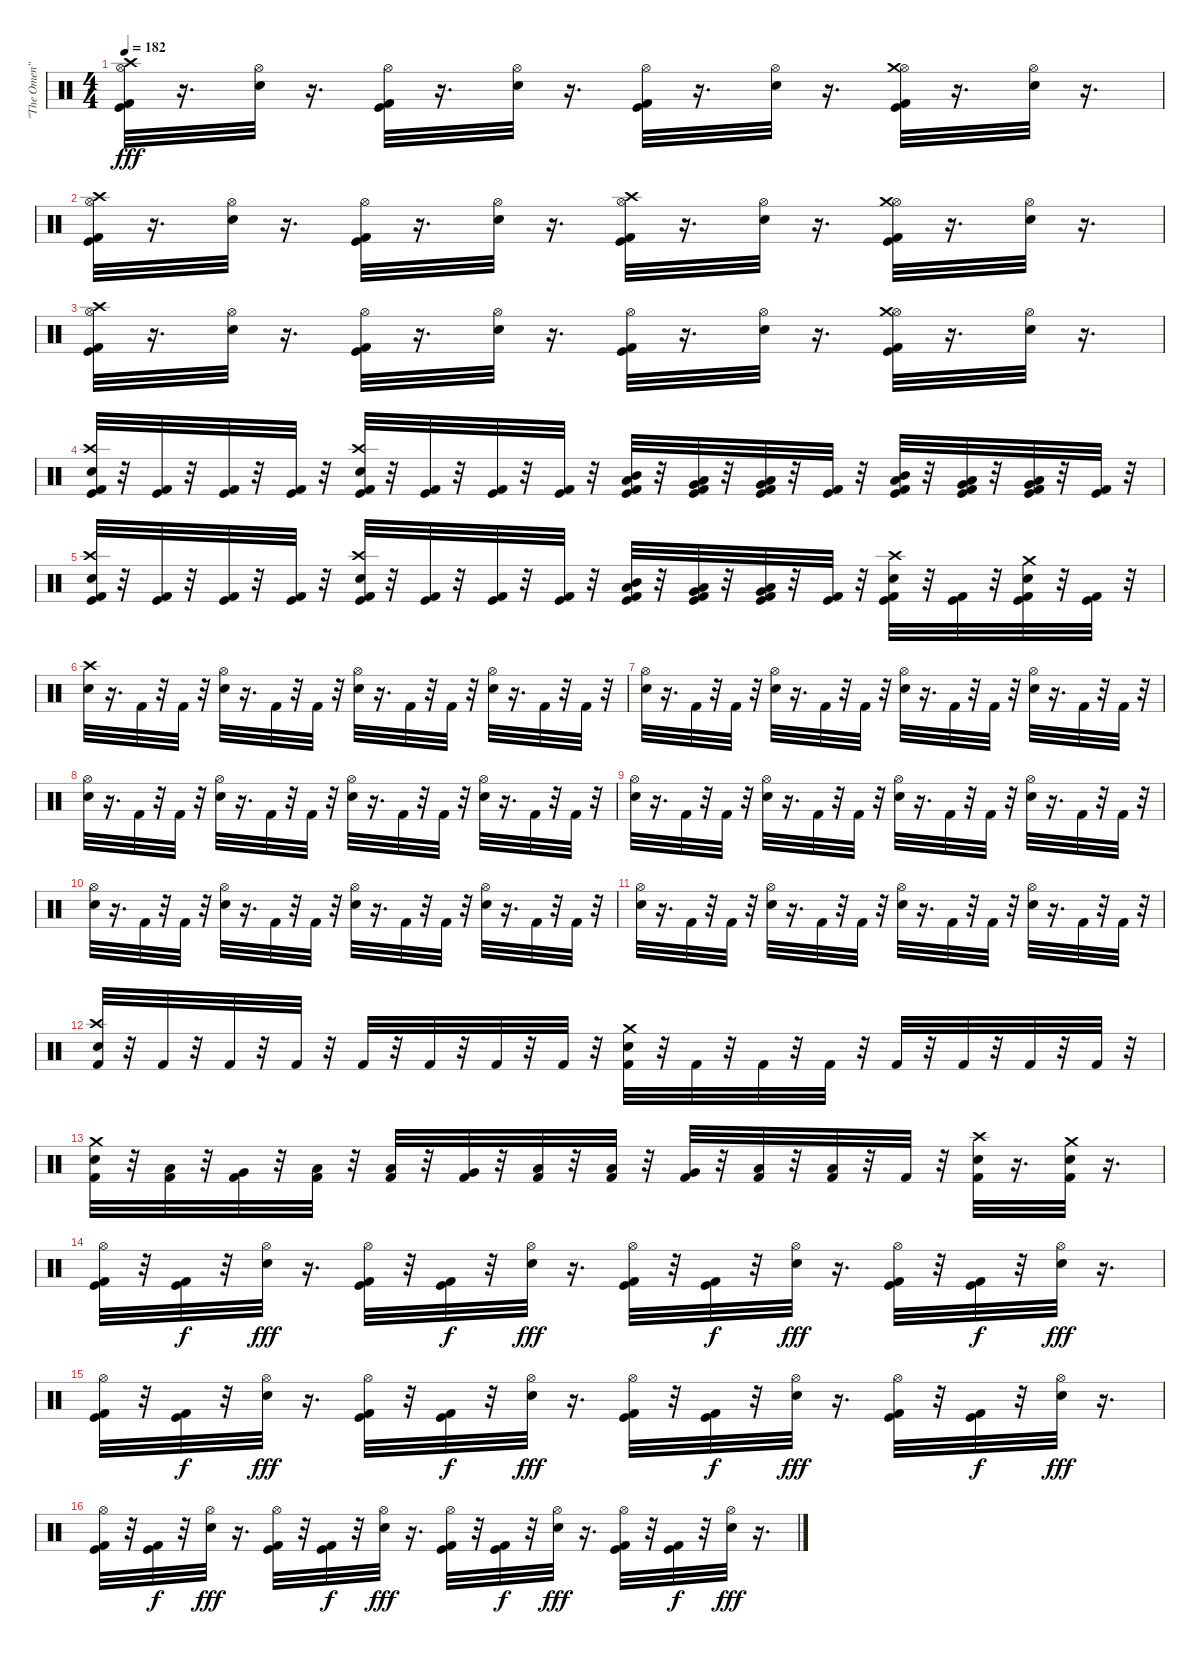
\track ("\"The Omen\"" "\"The Omen\"") {instrument percussion}
\staff {score}
\articulation defaults
\ts (4 4)
\tempo 182
\clef neutral
\ks c
("Kick (hit)" "Kick (hit) 2" "Hi-Hat (open)" "Crash high (hit)").32{dy fff} r.16{d} ("Snare (hit) 2" "Hi-Hat (open)").32 r.16{d} ("Kick (hit)" "Kick (hit) 2" "Hi-Hat (open)").32 r.16{d} ("Snare (hit) 2" "Hi-Hat (open)").32 r.16{d} ("Kick (hit)" "Kick (hit) 2" "Hi-Hat (open)").32 r.16{d} ("Snare (hit) 2" "Hi-Hat (open)").32 r.16{d} ("Kick (hit)" "Kick (hit) 2" "Hi-Hat (open)" "Crash medium (hit)").32 r.16{d} ("Snare (hit) 2" "Hi-Hat (open)").32 r.16{d} |
("Kick (hit)" "Kick (hit) 2" "Hi-Hat (open)" "Crash high (hit)").32 r.16{d} ("Snare (hit) 2" "Hi-Hat (open)").32 r.16{d} ("Kick (hit)" "Kick (hit) 2" "Hi-Hat (open)").32 r.16{d} ("Snare (hit) 2" "Hi-Hat (open)").32 r.16{d} ("Kick (hit)" "Kick (hit) 2" "Hi-Hat (open)" "Crash high (hit)").32 r.16{d} ("Snare (hit) 2" "Hi-Hat (open)").32 r.16{d} ("Kick (hit)" "Kick (hit) 2" "Hi-Hat (open)" "Crash medium (hit)").32 r.16{d} ("Snare (hit) 2" "Hi-Hat (open)").32 r.16{d} |
("Kick (hit)" "Kick (hit) 2" "Hi-Hat (open)" "Crash high (hit)").32 r.16{d} ("Snare (hit) 2" "Hi-Hat (open)").32 r.16{d} ("Kick (hit)" "Kick (hit) 2" "Hi-Hat (open)").32 r.16{d} ("Snare (hit) 2" "Hi-Hat (open)").32 r.16{d} ("Kick (hit)" "Kick (hit) 2" "Hi-Hat (open)").32 r.16{d} ("Snare (hit) 2" "Hi-Hat (open)").32 r.16{d} ("Kick (hit)" "Kick (hit) 2" "Hi-Hat (open)" "Crash medium (hit)").32 r.16{d} ("Snare (hit) 2" "Hi-Hat (open)").32 r.16{d} |
("Kick (hit)" "Kick (hit) 2" "Snare (hit) 2" "Crash high (hit)").32 r.32 ("Kick (hit)" "Kick (hit) 2").32 r.32 ("Kick (hit)" "Kick (hit) 2").32 r.32 ("Kick (hit)" "Kick (hit) 2").32 r.32 ("Kick (hit)" "Kick (hit) 2" "Snare (hit) 2" "Crash high (hit)").32 r.32 ("Kick (hit)" "Kick (hit) 2").32 r.32 ("Kick (hit)" "Kick (hit) 2").32 r.32 ("Kick (hit)" "Kick (hit) 2").32 r.32 ("Kick (hit)" "Kick (hit) 2" "Low Tom (hit)" "Mid Tom (hit)").32 r.32 ("Kick (hit)" "Kick (hit) 2" "Very Low Tom (hit)" "Low Tom (hit)").32 r.32 ("Kick (hit)" "Kick (hit) 2" "Low Floor Tom (hit)" "Very Low Tom (hit)").32 r.32 ("Kick (hit)" "Kick (hit) 2").32 r.32 ("Kick (hit)" "Kick (hit) 2" "Low Tom (hit)" "Mid Tom (hit)").32 r.32 ("Kick (hit)" "Kick (hit) 2" "Very Low Tom (hit)" "Low Tom (hit)").32 r.32 ("Kick (hit)" "Kick (hit) 2" "Low Floor Tom (hit)" "Very Low Tom (hit)").32 r.32 ("Kick (hit)" "Kick (hit) 2").32 r.32 |
("Kick (hit)" "Kick (hit) 2" "Snare (hit) 2" "Crash high (hit)").32 r.32 ("Kick (hit)" "Kick (hit) 2").32 r.32 ("Kick (hit)" "Kick (hit) 2").32 r.32 ("Kick (hit)" "Kick (hit) 2").32 r.32 ("Kick (hit)" "Kick (hit) 2" "Snare (hit) 2" "Crash high (hit)").32 r.32 ("Kick (hit)" "Kick (hit) 2").32 r.32 ("Kick (hit)" "Kick (hit) 2").32 r.32 ("Kick (hit)" "Kick (hit) 2").32 r.32 ("Kick (hit)" "Kick (hit) 2" "Low Tom (hit)" "Mid Tom (hit)").32 r.32 ("Kick (hit)" "Kick (hit) 2" "Very Low Tom (hit)" "Low Tom (hit)").32 r.32 ("Kick (hit)" "Kick (hit) 2" "Low Floor Tom (hit)" "Very Low Tom (hit)").32 r.32 ("Kick (hit)" "Kick (hit) 2").32 r.32 ("Kick (hit)" "Kick (hit) 2" "Snare (hit) 2" "Crash high (hit)").32 r.32 ("Kick (hit)" "Kick (hit) 2").32 r.32 ("Kick (hit)" "Kick (hit) 2" "Snare (hit) 2" "Crash medium (hit)").32 r.32 ("Kick (hit)" "Kick (hit) 2").32 r.32 |
("Snare (hit) 2" "Crash high (hit)").32 r.16{d} "Kick (hit) 2".32 r.32 "Kick (hit) 2".32 r.32 ("Snare (hit) 2" "Hi-Hat (open)").32 r.16{d} "Kick (hit) 2".32 r.32 "Kick (hit) 2".32 r.32 ("Snare (hit) 2" "Hi-Hat (open)").32 r.16{d} "Kick (hit) 2".32 r.32 "Kick (hit) 2".32 r.32 ("Snare (hit) 2" "Hi-Hat (open)").32 r.16{d} "Kick (hit) 2".32 r.32 "Kick (hit) 2".32 r.32 |
("Snare (hit) 2" "Hi-Hat (open)").32 r.16{d} "Kick (hit) 2".32 r.32 "Kick (hit) 2".32 r.32 ("Snare (hit) 2" "Hi-Hat (open)").32 r.16{d} "Kick (hit) 2".32 r.32 "Kick (hit) 2".32 r.32 ("Snare (hit) 2" "Hi-Hat (open)").32 r.16{d} "Kick (hit) 2".32 r.32 "Kick (hit) 2".32 r.32 ("Snare (hit) 2" "Hi-Hat (open)").32 r.16{d} "Kick (hit) 2".32 r.32 "Kick (hit) 2".32 r.32 |
("Snare (hit) 2" "Hi-Hat (open)").32 r.16{d} "Kick (hit) 2".32 r.32 "Kick (hit) 2".32 r.32 ("Snare (hit) 2" "Hi-Hat (open)").32 r.16{d} "Kick (hit) 2".32 r.32 "Kick (hit) 2".32 r.32 ("Snare (hit) 2" "Hi-Hat (open)").32 r.16{d} "Kick (hit) 2".32 r.32 "Kick (hit) 2".32 r.32 ("Snare (hit) 2" "Hi-Hat (open)").32 r.16{d} "Kick (hit) 2".32 r.32 "Kick (hit) 2".32 r.32 |
("Snare (hit) 2" "Hi-Hat (open)").32 r.16{d} "Kick (hit) 2".32 r.32 "Kick (hit) 2".32 r.32 ("Snare (hit) 2" "Hi-Hat (open)").32 r.16{d} "Kick (hit) 2".32 r.32 "Kick (hit) 2".32 r.32 ("Snare (hit) 2" "Hi-Hat (open)").32 r.16{d} "Kick (hit) 2".32 r.32 "Kick (hit) 2".32 r.32 ("Snare (hit) 2" "Hi-Hat (open)").32 r.16{d} "Kick (hit) 2".32 r.32 "Kick (hit) 2".32 r.32 |
("Snare (hit) 2" "Hi-Hat (open)").32 r.16{d} "Kick (hit) 2".32 r.32 "Kick (hit) 2".32 r.32 ("Snare (hit) 2" "Hi-Hat (open)").32 r.16{d} "Kick (hit) 2".32 r.32 "Kick (hit) 2".32 r.32 ("Snare (hit) 2" "Hi-Hat (open)").32 r.16{d} "Kick (hit) 2".32 r.32 "Kick (hit) 2".32 r.32 ("Snare (hit) 2" "Hi-Hat (open)").32 r.16{d} "Kick (hit) 2".32 r.32 "Kick (hit) 2".32 r.32 |
("Snare (hit) 2" "Hi-Hat (open)").32 r.16{d} "Kick (hit) 2".32 r.32 "Kick (hit) 2".32 r.32 ("Snare (hit) 2" "Hi-Hat (open)").32 r.16{d} "Kick (hit) 2".32 r.32 "Kick (hit) 2".32 r.32 ("Snare (hit) 2" "Hi-Hat (open)").32 r.16{d} "Kick (hit) 2".32 r.32 "Kick (hit) 2".32 r.32 ("Snare (hit) 2" "Hi-Hat (open)").32 r.16{d} "Kick (hit) 2".32 r.32 "Kick (hit) 2".32 r.32 |
("Kick (hit) 2" "Snare (hit) 2" "Crash high (hit)").32 r.32 "Kick (hit) 2".32 r.32 "Kick (hit) 2".32 r.32 "Kick (hit) 2".32 r.32 "Kick (hit) 2".32 r.32 "Kick (hit) 2".32 r.32 "Kick (hit) 2".32 r.32 "Kick (hit) 2".32 r.32 ("Kick (hit) 2" "Snare (hit) 2" "Crash medium (hit)").32 r.32 "Kick (hit) 2".32 r.32 "Kick (hit) 2".32 r.32 "Kick (hit) 2".32 r.32 "Kick (hit) 2".32 r.32 "Kick (hit) 2".32 r.32 "Kick (hit) 2".32 r.32 "Kick (hit) 2".32 r.32 |
("Kick (hit) 2" "Snare (hit) 2" "Crash medium (hit)").32 r.32 ("Kick (hit) 2" "Low Tom (hit)").32 r.32 ("Kick (hit) 2" "Very Low Tom (hit)").32 r.32 ("Kick (hit) 2" "Low Floor Tom (hit)").32 r.32 ("Kick (hit) 2" "Low Tom (hit)").32 r.32 ("Kick (hit) 2" "Very Low Tom (hit)").32 r.32 ("Kick (hit) 2" "Low Floor Tom (hit)").32 r.32 ("Kick (hit) 2" "Low Tom (hit)").32 r.32 ("Kick (hit) 2" "Very Low Tom (hit)").32 r.32 ("Kick (hit) 2" "Low Floor Tom (hit)").32 r.32 ("Kick (hit) 2" "Low Floor Tom (hit)").32 r.32 "Kick (hit) 2".32 r.32 ("Kick (hit) 2" "Snare (hit) 2" "Crash high (hit)").32 r.16{d} ("Kick (hit) 2" "Snare (hit) 2" "Crash medium (hit)").32 r.16{d} |
("Kick (hit)" "Kick (hit) 2" "Hi-Hat (open)").32 r.32 ("Kick (hit)" "Kick (hit) 2").32{dy f} r.32 ("Snare (hit) 2" "Hi-Hat (open)").32{dy fff} r.16{d} ("Kick (hit)" "Kick (hit) 2" "Hi-Hat (open)").32 r.32 ("Kick (hit)" "Kick (hit) 2").32{dy f} r.32 ("Snare (hit) 2" "Hi-Hat (open)").32{dy fff} r.16{d} ("Kick (hit)" "Kick (hit) 2" "Hi-Hat (open)").32 r.32 ("Kick (hit)" "Kick (hit) 2").32{dy f} r.32 ("Snare (hit) 2" "Hi-Hat (open)").32{dy fff} r.16{d} ("Kick (hit)" "Kick (hit) 2" "Hi-Hat (open)").32 r.32 ("Kick (hit)" "Kick (hit) 2").32{dy f} r.32 ("Snare (hit) 2" "Hi-Hat (open)").32{dy fff} r.16{d} |
("Kick (hit)" "Kick (hit) 2" "Hi-Hat (open)").32 r.32 ("Kick (hit)" "Kick (hit) 2").32{dy f} r.32 ("Snare (hit) 2" "Hi-Hat (open)").32{dy fff} r.16{d} ("Kick (hit)" "Kick (hit) 2" "Hi-Hat (open)").32 r.32 ("Kick (hit)" "Kick (hit) 2").32{dy f} r.32 ("Snare (hit) 2" "Hi-Hat (open)").32{dy fff} r.16{d} ("Kick (hit)" "Kick (hit) 2" "Hi-Hat (open)").32 r.32 ("Kick (hit)" "Kick (hit) 2").32{dy f} r.32 ("Snare (hit) 2" "Hi-Hat (open)").32{dy fff} r.16{d} ("Kick (hit)" "Kick (hit) 2" "Hi-Hat (open)").32 r.32 ("Kick (hit)" "Kick (hit) 2").32{dy f} r.32 ("Snare (hit) 2" "Hi-Hat (open)").32{dy fff} r.16{d} |
("Kick (hit)" "Kick (hit) 2" "Hi-Hat (open)").32 r.32 ("Kick (hit)" "Kick (hit) 2").32{dy f} r.32 ("Snare (hit) 2" "Hi-Hat (open)").32{dy fff} r.16{d} ("Kick (hit)" "Kick (hit) 2" "Hi-Hat (open)").32 r.32 ("Kick (hit)" "Kick (hit) 2").32{dy f} r.32 ("Snare (hit) 2" "Hi-Hat (open)").32{dy fff} r.16{d} ("Kick (hit)" "Kick (hit) 2" "Hi-Hat (open)").32 r.32 ("Kick (hit)" "Kick (hit) 2").32{dy f} r.32 ("Snare (hit) 2" "Hi-Hat (open)").32{dy fff} r.16{d} ("Kick (hit)" "Kick (hit) 2" "Hi-Hat (open)").32 r.32 ("Kick (hit)" "Kick (hit) 2").32{dy f} r.32 ("Snare (hit) 2" "Hi-Hat (open)").32{dy fff} r.16{d}
